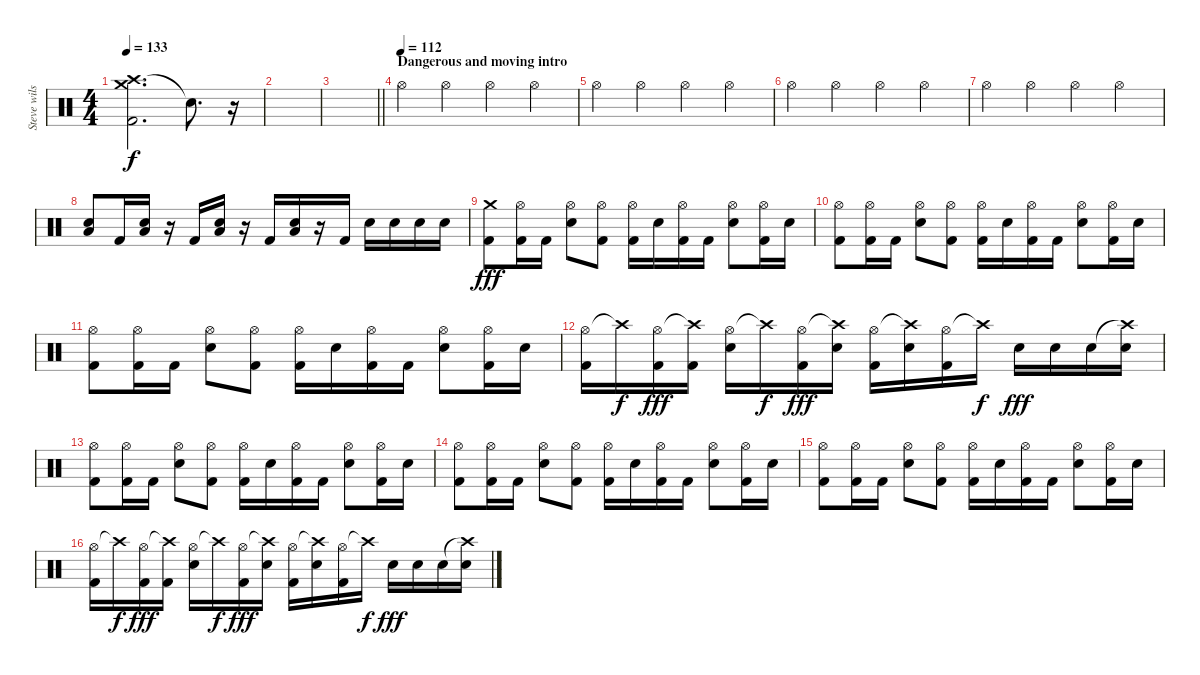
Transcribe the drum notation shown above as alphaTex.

\track ("Steve wilson" "Steve wils") {instrument percussion}
\staff {score}
\articulation defaults
\ts (4 4)
\tempo 133
\clef neutral
\ks c
("Crash high (hit)"{t} "Crash medium (hit)"{t} "Kick (hit) 2"{t}).2{d dy f} "Snare (hit)"{t}.8{d} r.16 |
|
\barLineRight lightlight
|
\section ("" "Dangerous and moving intro")
\tempo (112)
"Hi-Hat (open)".4 "Hi-Hat (open)".4 "Hi-Hat (open)".4 "Hi-Hat (open)".4 |
"Hi-Hat (open)".4 "Hi-Hat (open)".4 "Hi-Hat (open)".4 "Hi-Hat (open)".4 |
"Hi-Hat (open)".4 "Hi-Hat (open)".4 "Hi-Hat (open)".4 "Hi-Hat (open)".4 |
"Hi-Hat (open)".4 "Hi-Hat (open)".4 "Hi-Hat (open)".4 "Hi-Hat (open)".4 |
("Low Tom (hit)" "Electric Snare (hit)").8 "Kick (hit) 2".16 ("Low Tom (hit)" "Electric Snare (hit)").16 r.16 "Kick (hit) 2".16 ("Low Tom (hit)" "Electric Snare (hit)").16 r.16 "Kick (hit) 2".16 ("Low Tom (hit)" "Electric Snare (hit)").16 r.16 "Kick (hit) 2".16 "Electric Snare (hit)".16 "Electric Snare (hit)".16 "Electric Snare (hit)".16 "Electric Snare (hit)".16 |
("Crash medium (hit)" "Kick (hit) 2").8{dy fff} ("Hi-Hat (open)" "Kick (hit) 2").16 "Kick (hit) 2".16 ("Hi-Hat (open)" "Electric Snare (hit)").8 ("Hi-Hat (open)" "Kick (hit) 2").8 ("Hi-Hat (open)" "Kick (hit) 2").16 "Electric Snare (hit)".16 ("Hi-Hat (open)" "Kick (hit) 2").16 "Kick (hit) 2".16 ("Hi-Hat (open)" "Electric Snare (hit)").8 ("Hi-Hat (open)" "Kick (hit) 2").16 "Electric Snare (hit)".16 |
("Hi-Hat (open)" "Kick (hit) 2").8 ("Hi-Hat (open)" "Kick (hit) 2").16 "Kick (hit) 2".16 ("Hi-Hat (open)" "Electric Snare (hit)").8 ("Hi-Hat (open)" "Kick (hit) 2").8 ("Hi-Hat (open)" "Kick (hit) 2").16 "Electric Snare (hit)".16 ("Hi-Hat (open)" "Kick (hit) 2").16 "Kick (hit) 2".16 ("Hi-Hat (open)" "Electric Snare (hit)").8 ("Hi-Hat (open)" "Kick (hit) 2").16 "Electric Snare (hit)".16 |
("Hi-Hat (open)" "Kick (hit) 2").8 ("Hi-Hat (open)" "Kick (hit) 2").16 "Kick (hit) 2".16 ("Hi-Hat (open)" "Electric Snare (hit)").8 ("Hi-Hat (open)" "Kick (hit) 2").8 ("Hi-Hat (open)" "Kick (hit) 2").16 "Electric Snare (hit)".16 ("Hi-Hat (open)" "Kick (hit) 2").16 "Kick (hit) 2".16 ("Hi-Hat (open)" "Electric Snare (hit)").8 ("Hi-Hat (open)" "Kick (hit) 2").16 "Electric Snare (hit)".16 |
("Hi-Hat (open)" "Kick (hit) 2").16 "Crash high (hit)"{t}.16{dy f} ("Hi-Hat (open)" "Kick (hit) 2").16{dy fff} ("Crash high (hit)"{t} "Kick (hit) 2").16 ("Hi-Hat (open)" "Electric Snare (hit)").16 "Crash high (hit)"{t}.16{dy f} ("Hi-Hat (open)" "Kick (hit) 2").16{dy fff} ("Crash high (hit)"{t} "Electric Snare (hit)").16 ("Hi-Hat (open)" "Kick (hit) 2").16 ("Crash high (hit)"{t} "Electric Snare (hit)").16 ("Hi-Hat (open)" "Kick (hit) 2").16 "Crash high (hit)"{t}.16{dy f} "Electric Snare (hit)".16{dy fff} "Electric Snare (hit)".16 "Electric Snare (hit)".16 ("Crash high (hit)"{t} "Electric Snare (hit)").16 |
("Hi-Hat (open)" "Kick (hit) 2").8 ("Hi-Hat (open)" "Kick (hit) 2").16 "Kick (hit) 2".16 ("Hi-Hat (open)" "Electric Snare (hit)").8 ("Hi-Hat (open)" "Kick (hit) 2").8 ("Hi-Hat (open)" "Kick (hit) 2").16 "Electric Snare (hit)".16 ("Hi-Hat (open)" "Kick (hit) 2").16 "Kick (hit) 2".16 ("Hi-Hat (open)" "Electric Snare (hit)").8 ("Hi-Hat (open)" "Kick (hit) 2").16 "Electric Snare (hit)".16 |
("Hi-Hat (open)" "Kick (hit) 2").8 ("Hi-Hat (open)" "Kick (hit) 2").16 "Kick (hit) 2".16 ("Hi-Hat (open)" "Electric Snare (hit)").8 ("Hi-Hat (open)" "Kick (hit) 2").8 ("Hi-Hat (open)" "Kick (hit) 2").16 "Electric Snare (hit)".16 ("Hi-Hat (open)" "Kick (hit) 2").16 "Kick (hit) 2".16 ("Hi-Hat (open)" "Electric Snare (hit)").8 ("Hi-Hat (open)" "Kick (hit) 2").16 "Electric Snare (hit)".16 |
("Hi-Hat (open)" "Kick (hit) 2").8 ("Hi-Hat (open)" "Kick (hit) 2").16 "Kick (hit) 2".16 ("Hi-Hat (open)" "Electric Snare (hit)").8 ("Hi-Hat (open)" "Kick (hit) 2").8 ("Hi-Hat (open)" "Kick (hit) 2").16 "Electric Snare (hit)".16 ("Hi-Hat (open)" "Kick (hit) 2").16 "Kick (hit) 2".16 ("Hi-Hat (open)" "Electric Snare (hit)").8 ("Hi-Hat (open)" "Kick (hit) 2").16 "Electric Snare (hit)".16 |
("Hi-Hat (open)" "Kick (hit) 2").16 "Crash high (hit)"{t}.16{dy f} ("Hi-Hat (open)" "Kick (hit) 2").16{dy fff} ("Crash high (hit)"{t} "Kick (hit) 2").16 ("Hi-Hat (open)" "Electric Snare (hit)").16 "Crash high (hit)"{t}.16{dy f} ("Hi-Hat (open)" "Kick (hit) 2").16{dy fff} ("Crash high (hit)"{t} "Electric Snare (hit)").16 ("Hi-Hat (open)" "Kick (hit) 2").16 ("Crash high (hit)"{t} "Electric Snare (hit)").16 ("Hi-Hat (open)" "Kick (hit) 2").16 "Crash high (hit)"{t}.16{dy f} "Electric Snare (hit)".16{dy fff} "Electric Snare (hit)".16 "Electric Snare (hit)".16 ("Crash high (hit)"{t} "Electric Snare (hit)").16
